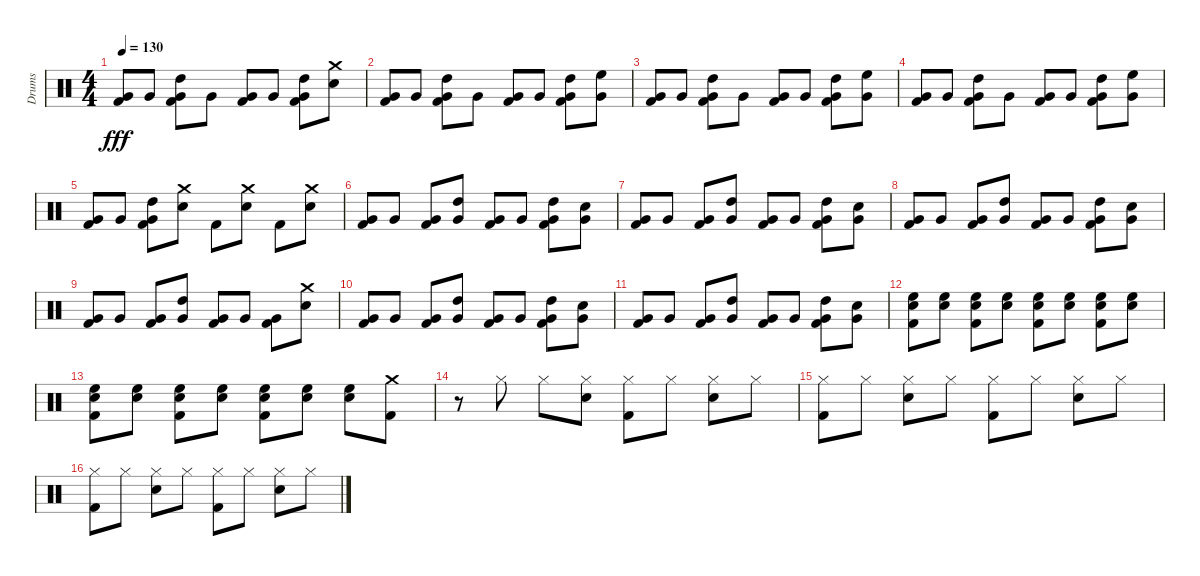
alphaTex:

\track ("Drums" "Drums") {instrument percussion}
\staff {score}
\articulation defaults
\ts (4 4)
\tempo 130
\clef neutral
\ks c
("Very Low Tom (hit)" "Kick (hit) 2").8{dy fff} "Very Low Tom (hit)".8 ("High Tom (hit)" "Very Low Tom (hit)" "Kick (hit) 2").8 "Very Low Tom (hit)".8 ("Very Low Tom (hit)" "Kick (hit) 2").8 "Very Low Tom (hit)".8 ("High Tom (hit)" "Very Low Tom (hit)" "Kick (hit) 2").8 ("Snare (hit) 2" "Crash medium (hit)").8 |
("Very Low Tom (hit)" "Kick (hit) 2").8 "Very Low Tom (hit)".8 ("High Tom (hit)" "Very Low Tom (hit)" "Kick (hit) 2").8 "Very Low Tom (hit)".8 ("Very Low Tom (hit)" "Kick (hit) 2").8 "Very Low Tom (hit)".8 ("High Tom (hit)" "Very Low Tom (hit)" "Kick (hit) 2").8 ("High Floor Tom (hit)" "Very Low Tom (hit)").8 |
("Very Low Tom (hit)" "Kick (hit) 2").8 "Very Low Tom (hit)".8 ("High Tom (hit)" "Very Low Tom (hit)" "Kick (hit) 2").8 "Very Low Tom (hit)".8 ("Very Low Tom (hit)" "Kick (hit) 2").8 "Very Low Tom (hit)".8 ("High Tom (hit)" "Very Low Tom (hit)" "Kick (hit) 2").8 ("High Floor Tom (hit)" "Very Low Tom (hit)").8 |
("Very Low Tom (hit)" "Kick (hit) 2").8 "Very Low Tom (hit)".8 ("High Tom (hit)" "Very Low Tom (hit)" "Kick (hit) 2").8 "Very Low Tom (hit)".8 ("Very Low Tom (hit)" "Kick (hit) 2").8 "Very Low Tom (hit)".8 ("High Tom (hit)" "Very Low Tom (hit)" "Kick (hit) 2").8 ("High Floor Tom (hit)" "Very Low Tom (hit)").8 |
("Very Low Tom (hit)" "Kick (hit) 2").8 "Very Low Tom (hit)".8 ("High Tom (hit)" "Very Low Tom (hit)" "Kick (hit) 2").8 ("Crash medium (hit)" "Snare (hit) 2").8 "Kick (hit) 2".8 ("Crash medium (hit)" "Snare (hit) 2").8 "Kick (hit) 2".8 ("Crash medium (hit)" "Snare (hit) 2").8 |
("Kick (hit) 2" "Very Low Tom (hit)").8 "Very Low Tom (hit)".8 ("Kick (hit) 2" "Very Low Tom (hit)").8 ("High Tom (hit)" "Very Low Tom (hit)").8 ("Kick (hit) 2" "Very Low Tom (hit)").8 "Very Low Tom (hit)".8 ("Kick (hit) 2" "High Tom (hit)" "Very Low Tom (hit)").8 ("Snare (hit) 2" "Very Low Tom (hit)").8 |
("Kick (hit) 2" "Very Low Tom (hit)").8 "Very Low Tom (hit)".8 ("Kick (hit) 2" "Very Low Tom (hit)").8 ("High Tom (hit)" "Very Low Tom (hit)").8 ("Kick (hit) 2" "Very Low Tom (hit)").8 "Very Low Tom (hit)".8 ("Kick (hit) 2" "High Tom (hit)" "Very Low Tom (hit)").8 ("Snare (hit) 2" "Very Low Tom (hit)").8 |
("Kick (hit) 2" "Very Low Tom (hit)").8 "Very Low Tom (hit)".8 ("Kick (hit) 2" "Very Low Tom (hit)").8 ("High Tom (hit)" "Very Low Tom (hit)").8 ("Kick (hit) 2" "Very Low Tom (hit)").8 "Very Low Tom (hit)".8 ("Kick (hit) 2" "High Tom (hit)" "Very Low Tom (hit)").8 ("Snare (hit) 2" "Very Low Tom (hit)").8 |
("Very Low Tom (hit)" "Kick (hit) 2").8 "Very Low Tom (hit)".8 ("Very Low Tom (hit)" "Kick (hit) 2").8 ("High Tom (hit)" "Very Low Tom (hit)").8 ("Very Low Tom (hit)" "Kick (hit) 2").8 "Very Low Tom (hit)".8 ("Very Low Tom (hit)" "Kick (hit) 2").8 ("Crash medium (hit)" "Snare (hit) 2").8 |
("Kick (hit) 2" "Very Low Tom (hit)").8 "Very Low Tom (hit)".8 ("Kick (hit) 2" "Very Low Tom (hit)").8 ("High Tom (hit)" "Very Low Tom (hit)").8 ("Kick (hit) 2" "Very Low Tom (hit)").8 "Very Low Tom (hit)".8 ("Kick (hit) 2" "High Tom (hit)" "Very Low Tom (hit)").8 ("Snare (hit) 2" "Very Low Tom (hit)").8 |
("Kick (hit) 2" "Very Low Tom (hit)").8 "Very Low Tom (hit)".8 ("Kick (hit) 2" "Very Low Tom (hit)").8 ("High Tom (hit)" "Very Low Tom (hit)").8 ("Kick (hit) 2" "Very Low Tom (hit)").8 "Very Low Tom (hit)".8 ("Kick (hit) 2" "High Tom (hit)" "Very Low Tom (hit)").8 ("Snare (hit) 2" "Very Low Tom (hit)").8 |
("High Floor Tom (hit)" "Snare (hit) 2" "Kick (hit) 2").8 ("High Floor Tom (hit)" "Snare (hit) 2").8 ("High Floor Tom (hit)" "Snare (hit) 2" "Kick (hit) 2").8 ("High Floor Tom (hit)" "Snare (hit) 2").8 ("High Floor Tom (hit)" "Snare (hit) 2" "Kick (hit) 2").8 ("High Floor Tom (hit)" "Snare (hit) 2").8 ("High Floor Tom (hit)" "Snare (hit) 2" "Kick (hit) 2").8 ("High Floor Tom (hit)" "Snare (hit) 2").8 |
("High Floor Tom (hit)" "Snare (hit) 2" "Kick (hit) 2").8 ("High Floor Tom (hit)" "Snare (hit) 2").8 ("High Floor Tom (hit)" "Snare (hit) 2" "Kick (hit) 2").8 ("High Floor Tom (hit)" "Snare (hit) 2").8 ("High Floor Tom (hit)" "Snare (hit) 2" "Kick (hit) 2").8 ("High Floor Tom (hit)" "Snare (hit) 2").8 ("High Floor Tom (hit)" "Snare (hit) 2").8 ("Kick (hit) 2" "Crash medium (hit)").8 |
r.8 "Hi-Hat (closed)".8 "Hi-Hat (closed)".8 ("Snare (hit) 2" "Hi-Hat (closed)").8 ("Kick (hit) 2" "Hi-Hat (closed)").8 "Hi-Hat (closed)".8 ("Snare (hit) 2" "Hi-Hat (closed)").8 "Hi-Hat (closed)".8 |
("Kick (hit) 2" "Hi-Hat (closed)").8 "Hi-Hat (closed)".8 ("Snare (hit) 2" "Hi-Hat (closed)").8 "Hi-Hat (closed)".8 ("Kick (hit) 2" "Hi-Hat (closed)").8 "Hi-Hat (closed)".8 ("Snare (hit) 2" "Hi-Hat (closed)").8 "Hi-Hat (closed)".8 |
("Kick (hit) 2" "Hi-Hat (closed)").8 "Hi-Hat (closed)".8 ("Snare (hit) 2" "Hi-Hat (closed)").8 "Hi-Hat (closed)".8 ("Kick (hit) 2" "Hi-Hat (closed)").8 "Hi-Hat (closed)".8 ("Snare (hit) 2" "Hi-Hat (closed)").8 "Hi-Hat (closed)".8
